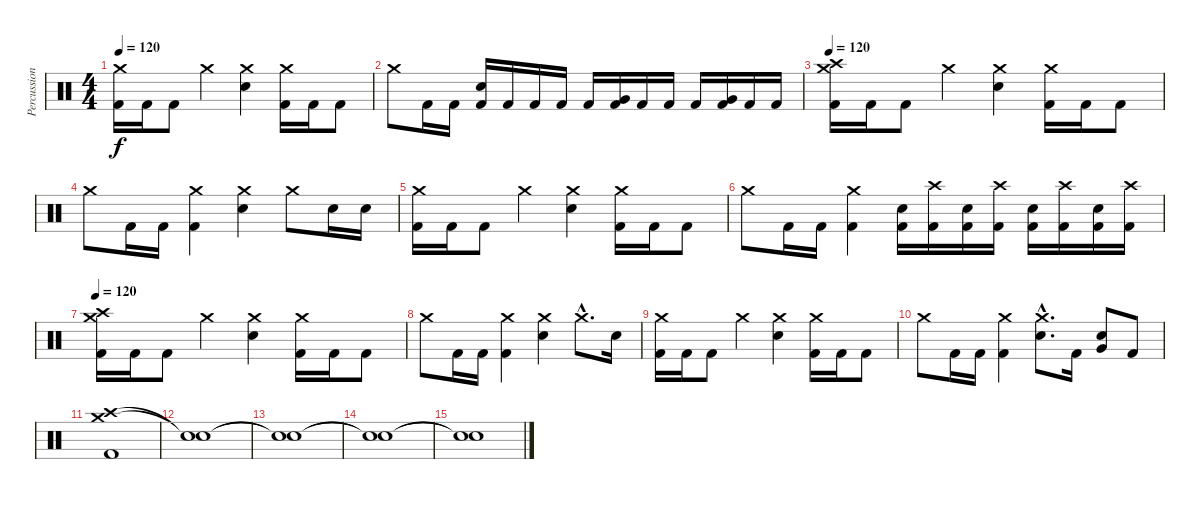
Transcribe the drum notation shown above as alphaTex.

\track ("Percussion" "Percussion") {instrument percussion}
\staff {score}
\articulation defaults
\ts (4 4)
\tempo 120
\clef neutral
\ks c
("Crash medium (hit)" "Kick (hit) 2").16{dy f} "Kick (hit) 2".16 "Kick (hit) 2".8 "Crash medium (hit)".4 ("Crash medium (hit)" "Electric Snare (hit)").4 ("Crash medium (hit)" "Kick (hit) 2").16 "Kick (hit) 2".16 "Kick (hit) 2".8 |
"Crash medium (hit)".8 "Kick (hit) 2".16 "Kick (hit) 2".16 ("Electric Snare (hit)" "Kick (hit) 2").16 "Kick (hit) 2".16 "Kick (hit) 2".16 "Kick (hit) 2".16 "Kick (hit) 2".16 ("Very Low Tom (hit)" "Kick (hit) 2").16 "Kick (hit) 2".16 "Kick (hit) 2".16 "Kick (hit) 2".16 ("Very Low Tom (hit)" "Kick (hit) 2").16 "Kick (hit) 2".16 "Kick (hit) 2".16 |
\tempo 120
("Crash high (hit)" "Crash medium (hit)" "Kick (hit) 2").16 "Kick (hit) 2".16 "Kick (hit) 2".8 "Crash medium (hit)".4 ("Crash medium (hit)" "Electric Snare (hit)").4 ("Crash medium (hit)" "Kick (hit) 2").16 "Kick (hit) 2".16 "Kick (hit) 2".8 |
"Crash medium (hit)".8 "Kick (hit) 2".16 "Kick (hit) 2".16 ("Crash medium (hit)" "Kick (hit) 2").4 ("Crash medium (hit)" "Electric Snare (hit)").4 "Crash medium (hit)".8 "Electric Snare (hit)".16 "Electric Snare (hit)".16 |
("Crash medium (hit)" "Kick (hit) 2").16 "Kick (hit) 2".16 "Kick (hit) 2".8 "Crash medium (hit)".4 ("Crash medium (hit)" "Electric Snare (hit)").4 ("Crash medium (hit)" "Kick (hit) 2").16 "Kick (hit) 2".16 "Kick (hit) 2".8 |
"Crash medium (hit)".8 "Kick (hit) 2".16 "Kick (hit) 2".16 ("Crash medium (hit)" "Kick (hit) 2").4 ("Electric Snare (hit)" "Kick (hit) 2").16 ("Crash high (hit)" "Kick (hit) 2").16 ("Electric Snare (hit)" "Kick (hit) 2").16 ("Crash high (hit)" "Kick (hit) 2").16 ("Electric Snare (hit)" "Kick (hit) 2").16 ("Crash high (hit)" "Kick (hit) 2").16 ("Electric Snare (hit)" "Kick (hit) 2").16 ("Crash high (hit)" "Kick (hit) 2").16 |
\tempo 120
("Crash high (hit)" "Crash medium (hit)" "Kick (hit) 2").16 "Kick (hit) 2".16 "Kick (hit) 2".8 "Crash medium (hit)".4 ("Crash medium (hit)" "Electric Snare (hit)").4 ("Crash medium (hit)" "Kick (hit) 2").16 "Kick (hit) 2".16 "Kick (hit) 2".8 |
"Crash medium (hit)".8 "Kick (hit) 2".16 "Kick (hit) 2".16 ("Crash medium (hit)" "Kick (hit) 2").4 ("Crash medium (hit)" "Electric Snare (hit)").4 "Crash medium (hit)"{hac}.8{d} "Electric Snare (hit)".16 |
("Crash medium (hit)" "Kick (hit) 2").16 "Kick (hit) 2".16 "Kick (hit) 2".8 "Crash medium (hit)".4 ("Crash medium (hit)" "Electric Snare (hit)").4 ("Crash medium (hit)" "Kick (hit) 2").16 "Kick (hit) 2".16 "Kick (hit) 2".8 |
"Crash medium (hit)".8 "Kick (hit) 2".16 "Kick (hit) 2".16 ("Crash medium (hit)" "Kick (hit) 2").4 ("Crash medium (hit)"{hac} "Electric Snare (hit)"{hac}).8{d} "Kick (hit) 2".16 ("Very Low Tom (hit)" "Electric Snare (hit)").8 "Kick (hit) 2".8 |
("Crash high (hit)" "Crash medium (hit)" "Kick (hit) 2").1 |
("Snare (hit)"{t} "Snare (hit)"{t}).1 |
("Snare (hit)"{t} "Snare (hit)"{t}).1 |
("Snare (hit)"{t} "Snare (hit)"{t}).1 |
("Snare (hit)"{t} "Snare (hit)"{t}).1
